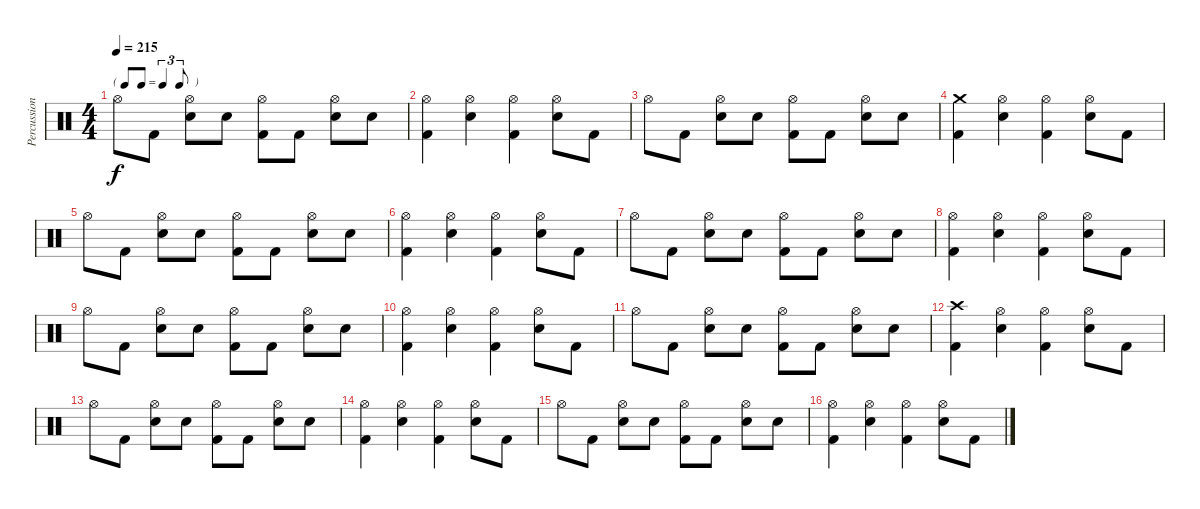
\track ("Percussion" "Percussion") {instrument percussion}
\staff {score}
\articulation defaults
\ts (4 4)
\tf triplet8th
\tempo 215
\clef neutral
\ks c "Hi-Hat (open)".8{dy f} "Kick (hit) 2".8
("Hi-Hat (open)" "Snare (hit) 2").8 "Snare (hit) 2".8 ("Hi-Hat (open)" "Kick (hit) 2").8 "Kick (hit) 2".8 ("Hi-Hat (open)" "Snare (hit) 2").8 "Snare (hit) 2".8 |
("Hi-Hat (open)" "Kick (hit) 2").4 ("Hi-Hat (open)" "Snare (hit) 2").4 ("Hi-Hat (open)" "Kick (hit) 2").4 ("Hi-Hat (open)" "Snare (hit) 2").8 "Kick (hit) 2".8 |
"Hi-Hat (open)".8 "Kick (hit) 2".8 ("Hi-Hat (open)" "Snare (hit) 2").8 "Snare (hit) 2".8 ("Hi-Hat (open)" "Kick (hit) 2").8 "Kick (hit) 2".8 ("Hi-Hat (open)" "Snare (hit) 2").8 "Snare (hit) 2".8 |
("Crash medium (hit)" "Kick (hit) 2").4 ("Hi-Hat (open)" "Snare (hit) 2").4 ("Hi-Hat (open)" "Kick (hit) 2").4 ("Hi-Hat (open)" "Snare (hit) 2").8 "Kick (hit) 2".8 |
"Hi-Hat (open)".8 "Kick (hit) 2".8 ("Hi-Hat (open)" "Snare (hit) 2").8 "Snare (hit) 2".8 ("Hi-Hat (open)" "Kick (hit) 2").8 "Kick (hit) 2".8 ("Hi-Hat (open)" "Snare (hit) 2").8 "Snare (hit) 2".8 |
("Hi-Hat (open)" "Kick (hit) 2").4 ("Hi-Hat (open)" "Snare (hit) 2").4 ("Hi-Hat (open)" "Kick (hit) 2").4 ("Hi-Hat (open)" "Snare (hit) 2").8 "Kick (hit) 2".8 |
"Hi-Hat (open)".8 "Kick (hit) 2".8 ("Hi-Hat (open)" "Snare (hit) 2").8 "Snare (hit) 2".8 ("Hi-Hat (open)" "Kick (hit) 2").8 "Kick (hit) 2".8 ("Hi-Hat (open)" "Snare (hit) 2").8 "Snare (hit) 2".8 |
("Hi-Hat (open)" "Kick (hit) 2").4 ("Hi-Hat (open)" "Snare (hit) 2").4 ("Hi-Hat (open)" "Kick (hit) 2").4 ("Hi-Hat (open)" "Snare (hit) 2").8 "Kick (hit) 2".8 |
"Hi-Hat (open)".8 "Kick (hit) 2".8 ("Hi-Hat (open)" "Snare (hit) 2").8 "Snare (hit) 2".8 ("Hi-Hat (open)" "Kick (hit) 2").8 "Kick (hit) 2".8 ("Hi-Hat (open)" "Snare (hit) 2").8 "Snare (hit) 2".8 |
("Hi-Hat (open)" "Kick (hit) 2").4 ("Hi-Hat (open)" "Snare (hit) 2").4 ("Hi-Hat (open)" "Kick (hit) 2").4 ("Hi-Hat (open)" "Snare (hit) 2").8 "Kick (hit) 2".8 |
"Hi-Hat (open)".8 "Kick (hit) 2".8 ("Hi-Hat (open)" "Snare (hit) 2").8 "Snare (hit) 2".8 ("Hi-Hat (open)" "Kick (hit) 2").8 "Kick (hit) 2".8 ("Hi-Hat (open)" "Snare (hit) 2").8 "Snare (hit) 2".8 |
("Crash high (hit)" "Kick (hit) 2").4 ("Hi-Hat (open)" "Snare (hit) 2").4 ("Hi-Hat (open)" "Kick (hit) 2").4 ("Hi-Hat (open)" "Snare (hit) 2").8 "Kick (hit) 2".8 |
"Hi-Hat (open)".8 "Kick (hit) 2".8 ("Hi-Hat (open)" "Snare (hit) 2").8 "Snare (hit) 2".8 ("Hi-Hat (open)" "Kick (hit) 2").8 "Kick (hit) 2".8 ("Hi-Hat (open)" "Snare (hit) 2").8 "Snare (hit) 2".8 |
("Hi-Hat (open)" "Kick (hit) 2").4 ("Hi-Hat (open)" "Snare (hit) 2").4 ("Hi-Hat (open)" "Kick (hit) 2").4 ("Hi-Hat (open)" "Snare (hit) 2").8 "Kick (hit) 2".8 |
"Hi-Hat (open)".8 "Kick (hit) 2".8 ("Hi-Hat (open)" "Snare (hit) 2").8 "Snare (hit) 2".8 ("Hi-Hat (open)" "Kick (hit) 2").8 "Kick (hit) 2".8 ("Hi-Hat (open)" "Snare (hit) 2").8 "Snare (hit) 2".8 |
("Hi-Hat (open)" "Kick (hit) 2").4 ("Hi-Hat (open)" "Snare (hit) 2").4 ("Hi-Hat (open)" "Kick (hit) 2").4 ("Hi-Hat (open)" "Snare (hit) 2").8 "Kick (hit) 2".8
